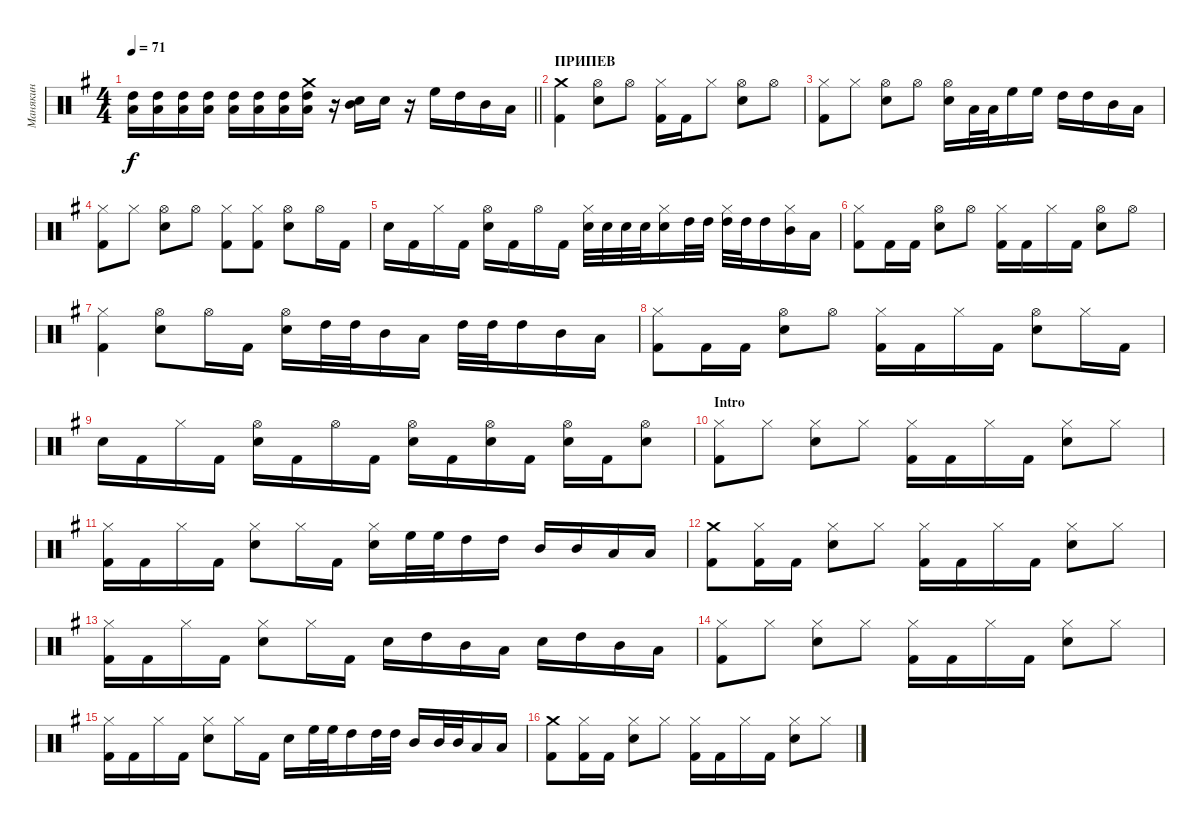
\track ("Манякин" "Манякин") {instrument percussion}
\staff {score}
\articulation defaults
\ts (4 4)
\tempo 71
\clef neutral
\barLineRight lightlight
\ks eminor
("Low Tom (hit)" "High Tom (hit)").16{dy f} ("Low Tom (hit)" "High Tom (hit)").16 ("Low Tom (hit)" "High Tom (hit)").16 ("Low Tom (hit)" "High Tom (hit)").16 ("Low Tom (hit)" "High Tom (hit)").16 ("Low Tom (hit)" "High Tom (hit)").16 ("Low Tom (hit)" "High Tom (hit)").16 ("Crash medium (hit)" "Low Tom (hit)" "High Tom (hit)").16 r.16 ("Mid Tom (hit)" "Snare (hit) 2").16 "Snare (hit) 2".16 r.16 "High Floor Tom (hit)".16 "High Tom (hit)".16 "Mid Tom (hit)".16 "Low Tom (hit)".16 |
\section ("" "ПРИПЕВ")
("Crash medium (hit)" "Kick (hit) 2").4 ("Hi-Hat (open)" "Snare (hit) 2").8 "Hi-Hat (open)".8 ("Hi-Hat (closed)" "Kick (hit) 2").16 "Kick (hit) 2".16 "Hi-Hat (closed)".8 ("Hi-Hat (open)" "Snare (hit) 2").8 "Hi-Hat (open)".8 |
("Hi-Hat (closed)" "Kick (hit) 2").8 "Hi-Hat (closed)".8 ("Hi-Hat (open)" "Snare (hit) 2").8 "Hi-Hat (open)".8 ("Hi-Hat (open)" "Snare (hit) 2").16 "Low Tom (hit)".32 "Low Tom (hit)".32 "High Floor Tom (hit)".16 "High Floor Tom (hit)".16 "High Tom (hit)".16 "High Tom (hit)".16 "Mid Tom (hit)".16 "Low Tom (hit)".16 |
("Hi-Hat (closed)" "Kick (hit) 2").8 "Hi-Hat (closed)".8 ("Hi-Hat (open)" "Snare (hit) 2").8 "Hi-Hat (open)".8 ("Hi-Hat (closed)" "Kick (hit) 2").8 ("Hi-Hat (closed)" "Kick (hit) 2").8 ("Hi-Hat (open)" "Snare (hit) 2").8 "Hi-Hat (open)".16 "Kick (hit) 2".16 |
"Snare (hit) 2".16 "Kick (hit) 2".16 "Hi-Hat (closed)".16 "Kick (hit) 2".16 ("Hi-Hat (open)" "Snare (hit) 2").16 "Kick (hit) 2".16 "Hi-Hat (open)".16 "Kick (hit) 2".16 ("Hi-Hat (closed)" "Snare (hit) 2").32 "Snare (hit) 2".32 "Snare (hit) 2".32 "Snare (hit) 2".32 ("Hi-Hat (closed)" "Snare (hit) 2").16 "High Tom (hit)".32 "High Tom (hit)".32 ("Hi-Hat (closed)" "High Tom (hit)").32 "High Tom (hit)".32 "High Tom (hit)".16 ("Hi-Hat (closed)" "Mid Tom (hit)").16 "Low Tom (hit)".16 |
("Hi-Hat (closed)" "Kick (hit) 2").8 "Kick (hit) 2".16 "Kick (hit) 2".16 ("Hi-Hat (open)" "Snare (hit) 2").8 "Hi-Hat (open)".8 ("Hi-Hat (closed)" "Kick (hit) 2").16 "Kick (hit) 2".16 "Hi-Hat (closed)".16 "Kick (hit) 2".16 ("Hi-Hat (open)" "Snare (hit) 2").8 "Hi-Hat (open)".8 |
("Hi-Hat (closed)" "Kick (hit) 2").4 ("Hi-Hat (open)" "Snare (hit) 2").8 "Hi-Hat (open)".16 "Kick (hit) 2".16 ("Hi-Hat (open)" "Snare (hit) 2").16 "High Tom (hit)".32 "High Tom (hit)".32 "Mid Tom (hit)".16 "Low Tom (hit)".16 "High Tom (hit)".32 "High Tom (hit)".32 "High Tom (hit)".16 "Mid Tom (hit)".16 "Low Tom (hit)".16 |
("Hi-Hat (closed)" "Kick (hit) 2").8 "Kick (hit) 2".16 "Kick (hit) 2".16 ("Hi-Hat (open)" "Snare (hit) 2").8 "Hi-Hat (open)".8 ("Hi-Hat (closed)" "Kick (hit) 2").16 "Kick (hit) 2".16 "Hi-Hat (closed)".16 "Kick (hit) 2".16 ("Hi-Hat (open)" "Snare (hit) 2").8 "Hi-Hat (closed)".16 "Kick (hit) 2".16 |
"Snare (hit) 2".16 "Kick (hit) 2".16 "Hi-Hat (closed)".16 "Kick (hit) 2".16 ("Hi-Hat (open)" "Snare (hit) 2").16 "Kick (hit) 2".16 "Hi-Hat (open)".16 "Kick (hit) 2".16 ("Hi-Hat (open)" "Snare (hit) 2").16 "Kick (hit) 2".16 ("Hi-Hat (open)" "Snare (hit) 2").16 "Kick (hit) 2".16 ("Hi-Hat (open)" "Snare (hit) 2").16 "Kick (hit) 2".16 ("Hi-Hat (open)" "Snare (hit) 2").8 |
\section ("" "Intro")
("Hi-Hat (closed)" "Kick (hit) 2").8 "Hi-Hat (closed)".8 ("Hi-Hat (closed)" "Snare (hit) 2").8 "Hi-Hat (closed)".8 ("Hi-Hat (closed)" "Kick (hit) 2").16 "Kick (hit) 2".16 "Hi-Hat (closed)".16 "Kick (hit) 2".16 ("Hi-Hat (closed)" "Snare (hit) 2").8 "Hi-Hat (closed)".8 |
("Hi-Hat (closed)" "Kick (hit) 2").16 "Kick (hit) 2".16 "Hi-Hat (closed)".16 "Kick (hit) 2".16 ("Hi-Hat (closed)" "Snare (hit) 2").8 "Hi-Hat (closed)".16 "Kick (hit) 2".16 ("Hi-Hat (closed)" "Snare (hit) 2").16 "High Floor Tom (hit)".32 "High Floor Tom (hit)".32 "High Tom (hit)".16 "High Tom (hit)".16 "Mid Tom (hit)".16 "Mid Tom (hit)".16 "Low Tom (hit)".16 "Low Tom (hit)".16 |
("Crash medium (hit)" "Kick (hit) 2").8 ("Hi-Hat (closed)" "Kick (hit) 2").16 "Kick (hit) 2".16 ("Hi-Hat (closed)" "Snare (hit) 2").8 "Hi-Hat (closed)".8 ("Hi-Hat (closed)" "Kick (hit) 2").16 "Kick (hit) 2".16 "Hi-Hat (closed)".16 "Kick (hit) 2".16 ("Hi-Hat (closed)" "Snare (hit) 2").8 "Hi-Hat (closed)".8 |
("Hi-Hat (closed)" "Kick (hit) 2").16 "Kick (hit) 2".16 "Hi-Hat (closed)".16 "Kick (hit) 2".16 ("Hi-Hat (closed)" "Snare (hit) 2").8 "Hi-Hat (closed)".16 "Kick (hit) 2".16 "Snare (hit) 2".16 "High Tom (hit)".16 "Mid Tom (hit)".16 "Low Tom (hit)".16 "Snare (hit) 2".16 "High Tom (hit)".16 "Mid Tom (hit)".16 "Low Tom (hit)".16 |
("Hi-Hat (closed)" "Kick (hit) 2").8 "Hi-Hat (closed)".8 ("Hi-Hat (closed)" "Snare (hit) 2").8 "Hi-Hat (closed)".8 ("Hi-Hat (closed)" "Kick (hit) 2").16 "Kick (hit) 2".16 "Hi-Hat (closed)".16 "Kick (hit) 2".16 ("Hi-Hat (closed)" "Snare (hit) 2").8 "Hi-Hat (closed)".8 |
("Hi-Hat (closed)" "Kick (hit) 2").16 "Kick (hit) 2".16 "Hi-Hat (closed)".16 "Kick (hit) 2".16 ("Hi-Hat (closed)" "Snare (hit) 2").8 "Hi-Hat (closed)".16 "Kick (hit) 2".16 "Snare (hit) 2".16 "High Floor Tom (hit)".32 "High Floor Tom (hit)".32 "High Tom (hit)".16 "High Tom (hit)".32 "High Tom (hit)".32 "Mid Tom (hit)".16 "Mid Tom (hit)".32 "Mid Tom (hit)".32 "Low Tom (hit)".16 "Low Tom (hit)".16 |
("Crash medium (hit)" "Kick (hit) 2").8 ("Hi-Hat (closed)" "Kick (hit) 2").16 "Kick (hit) 2".16 ("Hi-Hat (closed)" "Snare (hit) 2").8 "Hi-Hat (closed)".8 ("Hi-Hat (closed)" "Kick (hit) 2").16 "Kick (hit) 2".16 "Hi-Hat (closed)".16 "Kick (hit) 2".16 ("Hi-Hat (closed)" "Snare (hit) 2").8 "Hi-Hat (closed)".8
